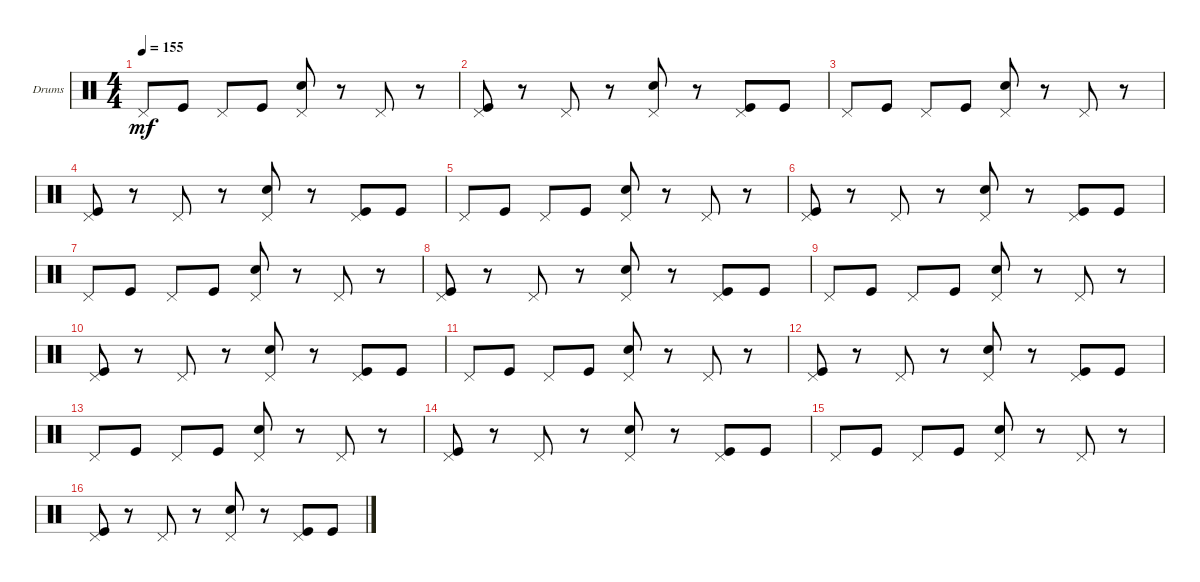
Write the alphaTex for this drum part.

\defaultSystemsLayout 4
\bracketExtendMode groupsimilarinstruments
\firstSystemTrackNameOrientation horizontal
\otherSystemsTrackNameOrientation horizontal
\track ("Drumkit" "Drums") {instrument percussion}
\staff {score}
\articulation defaults
\ts (4 4)
\tempo 155
\clef neutral
\scale
0.333333
\ks c "Pedal Hi-Hat (hit)".8{dy mf} "Kick (hit)".8 "Pedal Hi-Hat (hit)".8 "Kick (hit)".8
("Pedal Hi-Hat (hit)" "Snare (hit) 2").8 r.8 "Pedal Hi-Hat (hit)".8 r.8 |
\scale
0.333333 ("Kick (hit)" "Pedal Hi-Hat (hit)").8 r.8 "Pedal Hi-Hat (hit)".8 r.8 ("Pedal Hi-Hat (hit)" "Snare (hit) 2").8 r.8 ("Kick (hit)" "Pedal Hi-Hat (hit)").8 "Kick (hit)".8 |
\scale
0.333333 "Pedal Hi-Hat (hit)".8 "Kick (hit)".8 "Pedal Hi-Hat (hit)".8 "Kick (hit)".8 ("Pedal Hi-Hat (hit)" "Snare (hit) 2").8 r.8 "Pedal Hi-Hat (hit)".8 r.8 |
\scale
0.333333 ("Kick (hit)" "Pedal Hi-Hat (hit)").8 r.8 "Pedal Hi-Hat (hit)".8 r.8 ("Pedal Hi-Hat (hit)" "Snare (hit) 2").8 r.8 ("Kick (hit)" "Pedal Hi-Hat (hit)").8 "Kick (hit)".8 |
\scale
0.333333 "Pedal Hi-Hat (hit)".8 "Kick (hit)".8 "Pedal Hi-Hat (hit)".8 "Kick (hit)".8 ("Pedal Hi-Hat (hit)" "Snare (hit) 2").8 r.8 "Pedal Hi-Hat (hit)".8 r.8 |
\scale
0.333333 ("Kick (hit)" "Pedal Hi-Hat (hit)").8 r.8 "Pedal Hi-Hat (hit)".8 r.8 ("Pedal Hi-Hat (hit)" "Snare (hit) 2").8 r.8 ("Kick (hit)" "Pedal Hi-Hat (hit)").8 "Kick (hit)".8 |
\scale
0.333333 "Pedal Hi-Hat (hit)".8 "Kick (hit)".8 "Pedal Hi-Hat (hit)".8 "Kick (hit)".8 ("Pedal Hi-Hat (hit)" "Snare (hit) 2").8 r.8 "Pedal Hi-Hat (hit)".8 r.8 |
\scale
0.333333 ("Kick (hit)" "Pedal Hi-Hat (hit)").8 r.8 "Pedal Hi-Hat (hit)".8 r.8 ("Pedal Hi-Hat (hit)" "Snare (hit) 2").8 r.8 ("Kick (hit)" "Pedal Hi-Hat (hit)").8 "Kick (hit)".8 |
\scale
0.333333 "Pedal Hi-Hat (hit)".8 "Kick (hit)".8 "Pedal Hi-Hat (hit)".8 "Kick (hit)".8 ("Pedal Hi-Hat (hit)" "Snare (hit) 2").8 r.8 "Pedal Hi-Hat (hit)".8 r.8 |
\scale
0.333333 ("Kick (hit)" "Pedal Hi-Hat (hit)").8 r.8 "Pedal Hi-Hat (hit)".8 r.8 ("Pedal Hi-Hat (hit)" "Snare (hit) 2").8 r.8 ("Kick (hit)" "Pedal Hi-Hat (hit)").8 "Kick (hit)".8 |
\scale
0.333333 "Pedal Hi-Hat (hit)".8 "Kick (hit)".8 "Pedal Hi-Hat (hit)".8 "Kick (hit)".8 ("Pedal Hi-Hat (hit)" "Snare (hit) 2").8 r.8 "Pedal Hi-Hat (hit)".8 r.8 |
\scale
0.333333 ("Kick (hit)" "Pedal Hi-Hat (hit)").8 r.8 "Pedal Hi-Hat (hit)".8 r.8 ("Pedal Hi-Hat (hit)" "Snare (hit) 2").8 r.8 ("Kick (hit)" "Pedal Hi-Hat (hit)").8 "Kick (hit)".8 |
\scale
0.333333 "Pedal Hi-Hat (hit)".8 "Kick (hit)".8 "Pedal Hi-Hat (hit)".8 "Kick (hit)".8 ("Pedal Hi-Hat (hit)" "Snare (hit) 2").8 r.8 "Pedal Hi-Hat (hit)".8 r.8 |
\scale
0.333333 ("Kick (hit)" "Pedal Hi-Hat (hit)").8 r.8 "Pedal Hi-Hat (hit)".8 r.8 ("Pedal Hi-Hat (hit)" "Snare (hit) 2").8 r.8 ("Kick (hit)" "Pedal Hi-Hat (hit)").8 "Kick (hit)".8 |
\scale
0.333333 "Pedal Hi-Hat (hit)".8 "Kick (hit)".8 "Pedal Hi-Hat (hit)".8 "Kick (hit)".8 ("Pedal Hi-Hat (hit)" "Snare (hit) 2").8 r.8 "Pedal Hi-Hat (hit)".8 r.8 |
\scale
0.333333 ("Kick (hit)" "Pedal Hi-Hat (hit)").8 r.8 "Pedal Hi-Hat (hit)".8 r.8 ("Pedal Hi-Hat (hit)" "Snare (hit) 2").8 r.8 ("Kick (hit)" "Pedal Hi-Hat (hit)").8 "Kick (hit)".8
